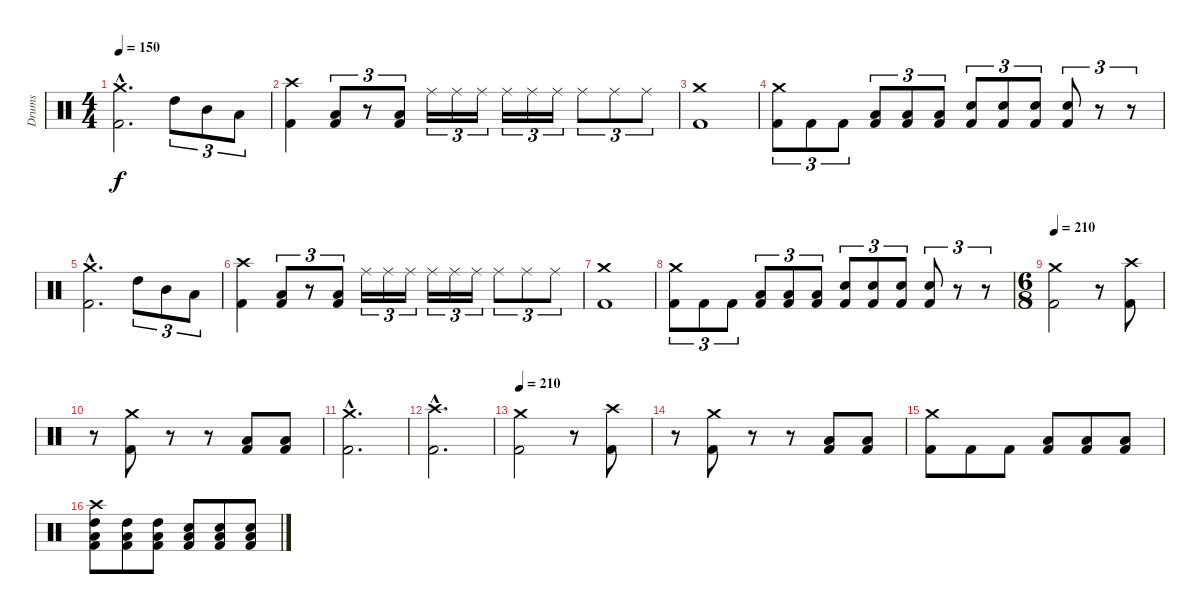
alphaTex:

\track ("Drums" "Drums") {instrument percussion}
\staff {score}
\articulation defaults
\ts (4 4)
\tempo 150
\clef neutral
\ks c
("Crash medium (hit)"{hac} "Kick (hit) 2"{hac}).2{d dy f} "High Tom (hit)".8{tu (3 2)} "Mid Tom (hit)".8{tu (3 2)} "Low Tom (hit)".8{tu (3 2)} |
("Crash high (hit)" "Kick (hit) 2").4 ("Low Tom (hit)" "Kick (hit) 2").8{tu (3 2)} r.8{tu (3 2)} ("Low Tom (hit)" "Kick (hit) 2").8{tu (3 2)} "Ride (middle)".16{tu (3 2)} "Ride (middle)".16{tu (3 2)} "Ride (middle)".16{tu (3 2)} "Ride (middle)".16{tu (3 2)} "Ride (middle)".16{tu (3 2)} "Ride (middle)".16{tu (3 2)} "Ride (middle)".8{tu (3 2)} "Ride (middle)".8{tu (3 2)} "Ride (middle)".8{tu (3 2)} |
("Crash medium (hit)" "Kick (hit) 2").1 |
("Crash medium (hit)" "Kick (hit) 2").8{tu (3 2)} "Kick (hit) 2".8{tu (3 2)} "Kick (hit) 2".8{tu (3 2)} ("Low Tom (hit)" "Kick (hit) 2").8{tu (3 2)} ("Low Tom (hit)" "Kick (hit) 2").8{tu (3 2)} ("Low Tom (hit)" "Kick (hit) 2").8{tu (3 2)} ("Electric Snare (hit)" "Kick (hit) 2").8{tu (3 2)} ("Electric Snare (hit)" "Kick (hit) 2").8{tu (3 2)} ("Electric Snare (hit)" "Kick (hit) 2").8{tu (3 2)} ("Electric Snare (hit)" "Kick (hit) 2").8{tu (3 2)} r.8{tu (3 2)} r.8{tu (3 2)} |
("Crash medium (hit)"{hac} "Kick (hit) 2"{hac}).2{d} "High Tom (hit)".8{tu (3 2)} "Mid Tom (hit)".8{tu (3 2)} "Low Tom (hit)".8{tu (3 2)} |
("Crash high (hit)" "Kick (hit) 2").4 ("Low Tom (hit)" "Kick (hit) 2").8{tu (3 2)} r.8{tu (3 2)} ("Low Tom (hit)" "Kick (hit) 2").8{tu (3 2)} "Ride (middle)".16{tu (3 2)} "Ride (middle)".16{tu (3 2)} "Ride (middle)".16{tu (3 2)} "Ride (middle)".16{tu (3 2)} "Ride (middle)".16{tu (3 2)} "Ride (middle)".16{tu (3 2)} "Ride (middle)".8{tu (3 2)} "Ride (middle)".8{tu (3 2)} "Ride (middle)".8{tu (3 2)} |
("Crash medium (hit)" "Kick (hit) 2").1 |
("Crash medium (hit)" "Kick (hit) 2").8{tu (3 2)} "Kick (hit) 2".8{tu (3 2)} "Kick (hit) 2".8{tu (3 2)} ("Low Tom (hit)" "Kick (hit) 2").8{tu (3 2)} ("Low Tom (hit)" "Kick (hit) 2").8{tu (3 2)} ("Low Tom (hit)" "Kick (hit) 2").8{tu (3 2)} ("Electric Snare (hit)" "Kick (hit) 2").8{tu (3 2)} ("Electric Snare (hit)" "Kick (hit) 2").8{tu (3 2)} ("Electric Snare (hit)" "Kick (hit) 2").8{tu (3 2)} ("Electric Snare (hit)" "Kick (hit) 2").8{tu (3 2)} r.8{tu (3 2)} r.8{tu (3 2)} |
\ts (6 8)
\tempo 210
("Crash medium (hit)" "Kick (hit) 2").2 r.8 ("Crash high (hit)" "Kick (hit) 2").8 |
r.8 ("Crash medium (hit)" "Kick (hit) 2").8 r.8 r.8 ("Low Tom (hit)" "Kick (hit) 2").8 ("Low Tom (hit)" "Kick (hit) 2").8 |
("Crash medium (hit)"{hac} "Kick (hit) 2"{hac}).2{d} |
("Crash high (hit)"{hac} "Kick (hit) 2"{hac}).2{d} |
\tempo 210
("Crash medium (hit)" "Kick (hit) 2").2 r.8 ("Crash high (hit)" "Kick (hit) 2").8 |
r.8 ("Crash medium (hit)" "Kick (hit) 2").8 r.8 r.8 ("Low Tom (hit)" "Kick (hit) 2").8 ("Low Tom (hit)" "Kick (hit) 2").8 |
("Crash medium (hit)" "Kick (hit) 2").8 "Kick (hit) 2".8 "Kick (hit) 2".8 ("Low Tom (hit)" "Kick (hit) 2").8 ("Low Tom (hit)" "Kick (hit) 2").8 ("Low Tom (hit)" "Kick (hit) 2").8 |
("Crash high (hit)" "High Tom (hit)" "Low Tom (hit)" "Kick (hit) 2").8 ("High Tom (hit)" "Low Tom (hit)" "Kick (hit) 2").8 ("High Tom (hit)" "Low Tom (hit)" "Kick (hit) 2").8 ("Electric Snare (hit)" "Low Tom (hit)" "Kick (hit) 2").8 ("Electric Snare (hit)" "Low Tom (hit)" "Kick (hit) 2").8 ("Electric Snare (hit)" "Low Tom (hit)" "Kick (hit) 2").8
